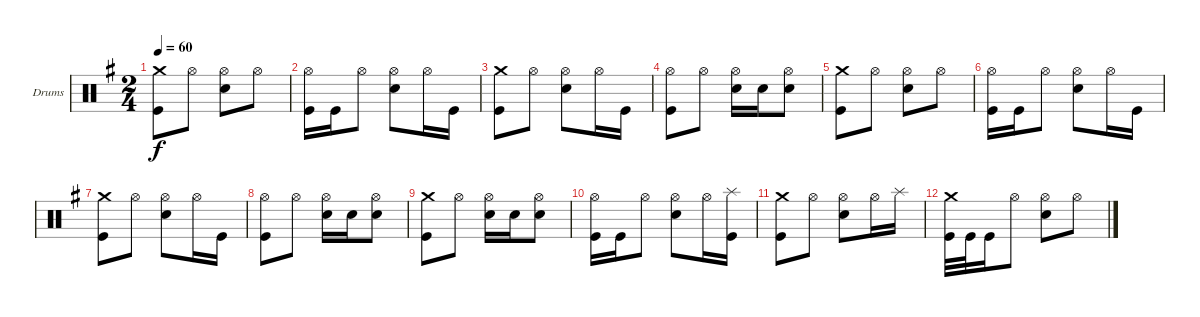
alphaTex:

\defaultSystemsLayout 4
\bracketExtendMode groupsimilarinstruments
\firstSystemTrackNameOrientation horizontal
\otherSystemsTrackNameOrientation horizontal
\track ("Drumkit" "Drums") {instrument percussion}
\staff {score}
\articulation defaults
\ts (2 4)
\tempo 60
\clef neutral
\ks eminor
("Crash medium (hit)" "Kick (hit)").8{dy f} "Hi-Hat (open)".8 ("Hi-Hat (open)" "Snare (hit) 2").8 "Hi-Hat (open)".8 |
("Hi-Hat (open)" "Kick (hit)").16 "Kick (hit)".16 "Hi-Hat (open)".8 ("Hi-Hat (open)" "Snare (hit) 2").8 "Hi-Hat (open)".16 "Kick (hit)".16 |
("Crash medium (hit)" "Kick (hit)").8 "Hi-Hat (open)".8 ("Hi-Hat (open)" "Snare (hit) 2").8 "Hi-Hat (open)".16 "Kick (hit)".16 |
("Hi-Hat (open)" "Kick (hit)").8 "Hi-Hat (open)".8 ("Hi-Hat (open)" "Snare (hit) 2").16 "Snare (hit) 2".16 ("Hi-Hat (open)" "Snare (hit) 2").8 |
("Crash medium (hit)" "Kick (hit)").8 "Hi-Hat (open)".8 ("Hi-Hat (open)" "Snare (hit) 2").8 "Hi-Hat (open)".8 |
("Hi-Hat (open)" "Kick (hit)").16 "Kick (hit)".16 "Hi-Hat (open)".8 ("Hi-Hat (open)" "Snare (hit) 2").8 "Hi-Hat (open)".16 "Kick (hit)".16 |
("Crash medium (hit)" "Kick (hit)").8 "Hi-Hat (open)".8 ("Hi-Hat (open)" "Snare (hit) 2").8 "Hi-Hat (open)".16 "Kick (hit)".16 |
("Hi-Hat (open)" "Kick (hit)").8 "Hi-Hat (open)".8 ("Hi-Hat (open)" "Snare (hit) 2").16 "Snare (hit) 2".16 ("Hi-Hat (open)" "Snare (hit) 2").8 |
("Crash medium (hit)" "Kick (hit)").8 "Hi-Hat (open)".8 ("Hi-Hat (open)" "Snare (hit) 2").16 "Snare (hit) 2".16 ("Hi-Hat (open)" "Snare (hit) 2").8 |
("Hi-Hat (open)" "Kick (hit)").16 "Kick (hit)".16 "Hi-Hat (open)".8 ("Hi-Hat (open)" "Snare (hit) 2").8 "Hi-Hat (open)".16 ("Splash (hit)" "Kick (hit)").16 |
("Crash medium (hit)" "Kick (hit)").8 "Hi-Hat (open)".8 ("Hi-Hat (open)" "Snare (hit) 2").8 "Hi-Hat (open)".16 "Splash (hit)".16 |
("Crash medium (hit)" "Kick (hit)").32 "Kick (hit)".32 "Kick (hit)".16 "Hi-Hat (open)".8 ("Hi-Hat (open)" "Snare (hit) 2").8 "Hi-Hat (open)".8
